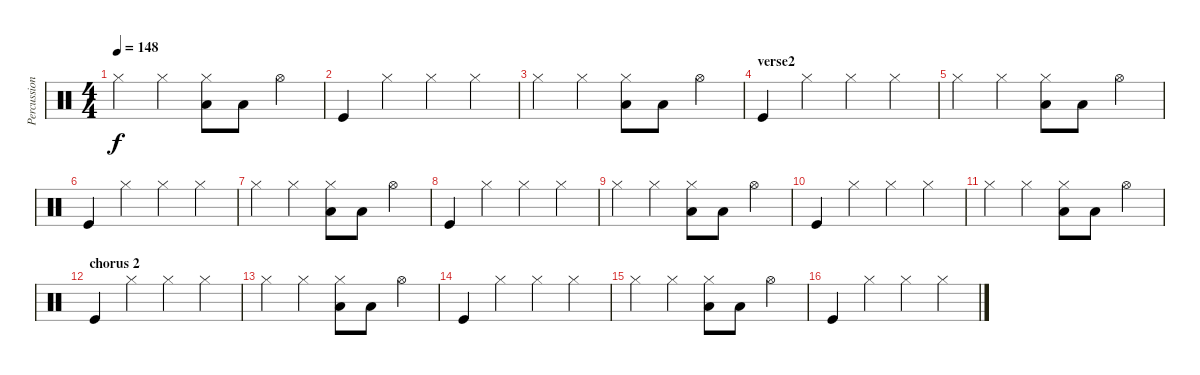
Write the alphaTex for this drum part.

\track ("Percussions" "Percussion") {instrument percussion}
\staff {score}
\articulation defaults
\ts (4 4)
\tempo 148
\clef neutral
\ks c "Hi-Hat (closed)".4{dy f} "Hi-Hat (closed)".4
("Hi-Hat (closed)" "Low Tom (hit)").8 "Low Tom (hit)".8 "Hi-Hat (open)".4 |
"Kick (hit)".4 "Hi-Hat (closed)".4 "Hi-Hat (closed)".4 "Hi-Hat (closed)".4 |
"Hi-Hat (closed)".4 "Hi-Hat (closed)".4 ("Hi-Hat (closed)" "Low Tom (hit)").8 "Low Tom (hit)".8 "Hi-Hat (open)".4 |
\section ("" "verse2")
"Kick (hit)".4 "Hi-Hat (closed)".4 "Hi-Hat (closed)".4 "Hi-Hat (closed)".4 |
"Hi-Hat (closed)".4 "Hi-Hat (closed)".4 ("Hi-Hat (closed)" "Low Tom (hit)").8 "Low Tom (hit)".8 "Hi-Hat (open)".4 |
"Kick (hit)".4 "Hi-Hat (closed)".4 "Hi-Hat (closed)".4 "Hi-Hat (closed)".4 |
"Hi-Hat (closed)".4 "Hi-Hat (closed)".4 ("Hi-Hat (closed)" "Low Tom (hit)").8 "Low Tom (hit)".8 "Hi-Hat (open)".4 |
"Kick (hit)".4 "Hi-Hat (closed)".4 "Hi-Hat (closed)".4 "Hi-Hat (closed)".4 |
"Hi-Hat (closed)".4 "Hi-Hat (closed)".4 ("Hi-Hat (closed)" "Low Tom (hit)").8 "Low Tom (hit)".8 "Hi-Hat (open)".4 |
"Kick (hit)".4 "Hi-Hat (closed)".4 "Hi-Hat (closed)".4 "Hi-Hat (closed)".4 |
"Hi-Hat (closed)".4 "Hi-Hat (closed)".4 ("Hi-Hat (closed)" "Low Tom (hit)").8 "Low Tom (hit)".8 "Hi-Hat (open)".4 |
\section ("" "chorus 2")
"Kick (hit)".4 "Hi-Hat (closed)".4 "Hi-Hat (closed)".4 "Hi-Hat (closed)".4 |
"Hi-Hat (closed)".4 "Hi-Hat (closed)".4 ("Hi-Hat (closed)" "Low Tom (hit)").8 "Low Tom (hit)".8 "Hi-Hat (open)".4 |
"Kick (hit)".4 "Hi-Hat (closed)".4 "Hi-Hat (closed)".4 "Hi-Hat (closed)".4 |
"Hi-Hat (closed)".4 "Hi-Hat (closed)".4 ("Hi-Hat (closed)" "Low Tom (hit)").8 "Low Tom (hit)".8 "Hi-Hat (open)".4 |
"Kick (hit)".4 "Hi-Hat (closed)".4 "Hi-Hat (closed)".4 "Hi-Hat (closed)".4
